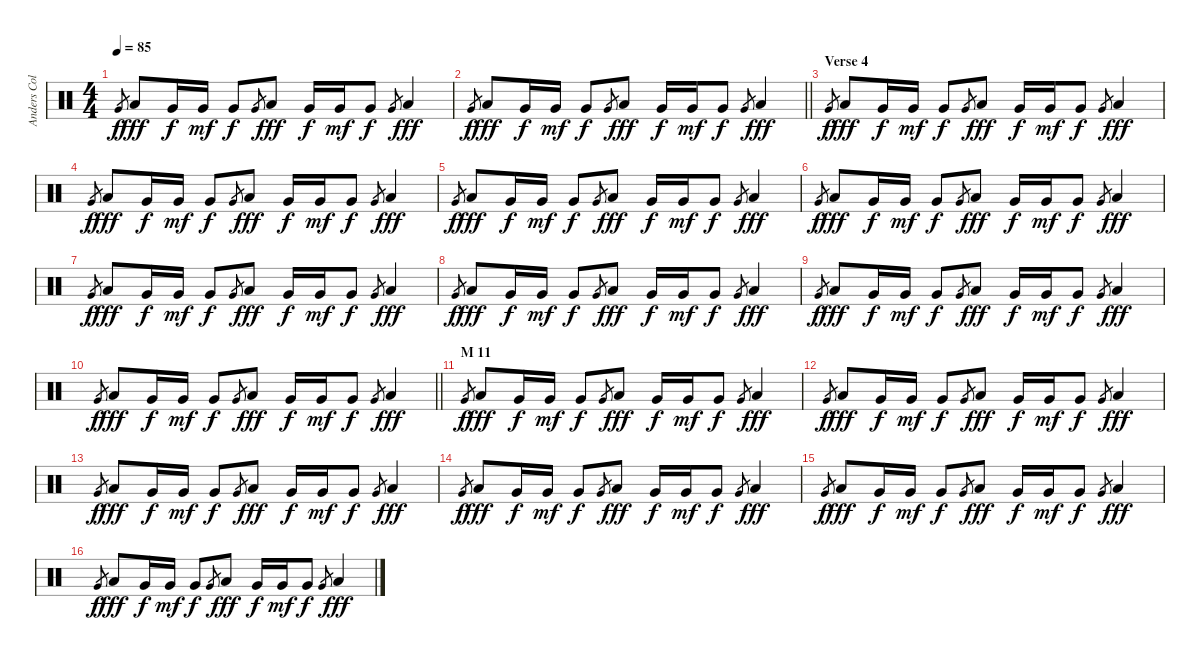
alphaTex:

\track ("Anders Colsefni" "Anders Col") {instrument percussion}
\staff {score}
\articulation defaults
\ts (4 4)
\tempo 85
\clef neutral
\ks c "Very Low Tom (hit)".8{gr dy f} "Low Tom (hit)".8{dy fff} "Very Low Tom (hit)".16{dy f} "Very Low Tom (hit)".16{dy mf} "Very Low Tom (hit)".8{dy f} "Very Low Tom (hit)".8{gr} "Low Tom (hit)".8{dy fff} "Very Low Tom (hit)".16{dy f} "Very Low Tom (hit)".16{dy mf} "Very Low Tom (hit)".8{dy f} "Very Low Tom (hit)".8{gr} "Low Tom (hit)".4{dy fff}
|
\barLineRight lightlight "Very Low Tom (hit)".8{gr dy f} "Low Tom (hit)".8{dy fff} "Very Low Tom (hit)".16{dy f} "Very Low Tom (hit)".16{dy mf} "Very Low Tom (hit)".8{dy f} "Very Low Tom (hit)".8{gr} "Low Tom (hit)".8{dy fff} "Very Low Tom (hit)".16{dy f} "Very Low Tom (hit)".16{dy mf} "Very Low Tom (hit)".8{dy f} "Very Low Tom (hit)".8{gr} "Low Tom (hit)".4{dy fff}
|
\section ("" "Verse 4")
"Very Low Tom (hit)".8{gr dy f} "Low Tom (hit)".8{dy fff} "Very Low Tom (hit)".16{dy f} "Very Low Tom (hit)".16{dy mf} "Very Low Tom (hit)".8{dy f} "Very Low Tom (hit)".8{gr} "Low Tom (hit)".8{dy fff} "Very Low Tom (hit)".16{dy f} "Very Low Tom (hit)".16{dy mf} "Very Low Tom (hit)".8{dy f} "Very Low Tom (hit)".8{gr} "Low Tom (hit)".4{dy fff} |
"Very Low Tom (hit)".8{gr dy f} "Low Tom (hit)".8{dy fff} "Very Low Tom (hit)".16{dy f} "Very Low Tom (hit)".16{dy mf} "Very Low Tom (hit)".8{dy f} "Very Low Tom (hit)".8{gr} "Low Tom (hit)".8{dy fff} "Very Low Tom (hit)".16{dy f} "Very Low Tom (hit)".16{dy mf} "Very Low Tom (hit)".8{dy f} "Very Low Tom (hit)".8{gr} "Low Tom (hit)".4{dy fff} |
"Very Low Tom (hit)".8{gr dy f} "Low Tom (hit)".8{dy fff} "Very Low Tom (hit)".16{dy f} "Very Low Tom (hit)".16{dy mf} "Very Low Tom (hit)".8{dy f} "Very Low Tom (hit)".8{gr} "Low Tom (hit)".8{dy fff} "Very Low Tom (hit)".16{dy f} "Very Low Tom (hit)".16{dy mf} "Very Low Tom (hit)".8{dy f} "Very Low Tom (hit)".8{gr} "Low Tom (hit)".4{dy fff} |
"Very Low Tom (hit)".8{gr dy f} "Low Tom (hit)".8{dy fff} "Very Low Tom (hit)".16{dy f} "Very Low Tom (hit)".16{dy mf} "Very Low Tom (hit)".8{dy f} "Very Low Tom (hit)".8{gr} "Low Tom (hit)".8{dy fff} "Very Low Tom (hit)".16{dy f} "Very Low Tom (hit)".16{dy mf} "Very Low Tom (hit)".8{dy f} "Very Low Tom (hit)".8{gr} "Low Tom (hit)".4{dy fff} |
"Very Low Tom (hit)".8{gr dy f} "Low Tom (hit)".8{dy fff} "Very Low Tom (hit)".16{dy f} "Very Low Tom (hit)".16{dy mf} "Very Low Tom (hit)".8{dy f} "Very Low Tom (hit)".8{gr} "Low Tom (hit)".8{dy fff} "Very Low Tom (hit)".16{dy f} "Very Low Tom (hit)".16{dy mf} "Very Low Tom (hit)".8{dy f} "Very Low Tom (hit)".8{gr} "Low Tom (hit)".4{dy fff} |
"Very Low Tom (hit)".8{gr dy f} "Low Tom (hit)".8{dy fff} "Very Low Tom (hit)".16{dy f} "Very Low Tom (hit)".16{dy mf} "Very Low Tom (hit)".8{dy f} "Very Low Tom (hit)".8{gr} "Low Tom (hit)".8{dy fff} "Very Low Tom (hit)".16{dy f} "Very Low Tom (hit)".16{dy mf} "Very Low Tom (hit)".8{dy f} "Very Low Tom (hit)".8{gr} "Low Tom (hit)".4{dy fff} |
"Very Low Tom (hit)".8{gr dy f} "Low Tom (hit)".8{dy fff} "Very Low Tom (hit)".16{dy f} "Very Low Tom (hit)".16{dy mf} "Very Low Tom (hit)".8{dy f} "Very Low Tom (hit)".8{gr} "Low Tom (hit)".8{dy fff} "Very Low Tom (hit)".16{dy f} "Very Low Tom (hit)".16{dy mf} "Very Low Tom (hit)".8{dy f} "Very Low Tom (hit)".8{gr} "Low Tom (hit)".4{dy fff} |
\barLineRight lightlight "Very Low Tom (hit)".8{gr dy f} "Low Tom (hit)".8{dy fff} "Very Low Tom (hit)".16{dy f} "Very Low Tom (hit)".16{dy mf} "Very Low Tom (hit)".8{dy f} "Very Low Tom (hit)".8{gr} "Low Tom (hit)".8{dy fff} "Very Low Tom (hit)".16{dy f} "Very Low Tom (hit)".16{dy mf} "Very Low Tom (hit)".8{dy f} "Very Low Tom (hit)".8{gr} "Low Tom (hit)".4{dy fff}
|
\section ("" "M 11")
"Very Low Tom (hit)".8{gr dy f} "Low Tom (hit)".8{dy fff} "Very Low Tom (hit)".16{dy f} "Very Low Tom (hit)".16{dy mf} "Very Low Tom (hit)".8{dy f} "Very Low Tom (hit)".8{gr} "Low Tom (hit)".8{dy fff} "Very Low Tom (hit)".16{dy f} "Very Low Tom (hit)".16{dy mf} "Very Low Tom (hit)".8{dy f} "Very Low Tom (hit)".8{gr} "Low Tom (hit)".4{dy fff} |
"Very Low Tom (hit)".8{gr dy f} "Low Tom (hit)".8{dy fff} "Very Low Tom (hit)".16{dy f} "Very Low Tom (hit)".16{dy mf} "Very Low Tom (hit)".8{dy f} "Very Low Tom (hit)".8{gr} "Low Tom (hit)".8{dy fff} "Very Low Tom (hit)".16{dy f} "Very Low Tom (hit)".16{dy mf} "Very Low Tom (hit)".8{dy f} "Very Low Tom (hit)".8{gr} "Low Tom (hit)".4{dy fff} |
"Very Low Tom (hit)".8{gr dy f} "Low Tom (hit)".8{dy fff} "Very Low Tom (hit)".16{dy f} "Very Low Tom (hit)".16{dy mf} "Very Low Tom (hit)".8{dy f} "Very Low Tom (hit)".8{gr} "Low Tom (hit)".8{dy fff} "Very Low Tom (hit)".16{dy f} "Very Low Tom (hit)".16{dy mf} "Very Low Tom (hit)".8{dy f} "Very Low Tom (hit)".8{gr} "Low Tom (hit)".4{dy fff} |
"Very Low Tom (hit)".8{gr dy f} "Low Tom (hit)".8{dy fff} "Very Low Tom (hit)".16{dy f} "Very Low Tom (hit)".16{dy mf} "Very Low Tom (hit)".8{dy f} "Very Low Tom (hit)".8{gr} "Low Tom (hit)".8{dy fff} "Very Low Tom (hit)".16{dy f} "Very Low Tom (hit)".16{dy mf} "Very Low Tom (hit)".8{dy f} "Very Low Tom (hit)".8{gr} "Low Tom (hit)".4{dy fff} |
"Very Low Tom (hit)".8{gr dy f} "Low Tom (hit)".8{dy fff} "Very Low Tom (hit)".16{dy f} "Very Low Tom (hit)".16{dy mf} "Very Low Tom (hit)".8{dy f} "Very Low Tom (hit)".8{gr} "Low Tom (hit)".8{dy fff} "Very Low Tom (hit)".16{dy f} "Very Low Tom (hit)".16{dy mf} "Very Low Tom (hit)".8{dy f} "Very Low Tom (hit)".8{gr} "Low Tom (hit)".4{dy fff} |
"Very Low Tom (hit)".8{gr dy f} "Low Tom (hit)".8{dy fff} "Very Low Tom (hit)".16{dy f} "Very Low Tom (hit)".16{dy mf} "Very Low Tom (hit)".8{dy f} "Very Low Tom (hit)".8{gr} "Low Tom (hit)".8{dy fff} "Very Low Tom (hit)".16{dy f} "Very Low Tom (hit)".16{dy mf} "Very Low Tom (hit)".8{dy f} "Very Low Tom (hit)".8{gr} "Low Tom (hit)".4{dy fff}
